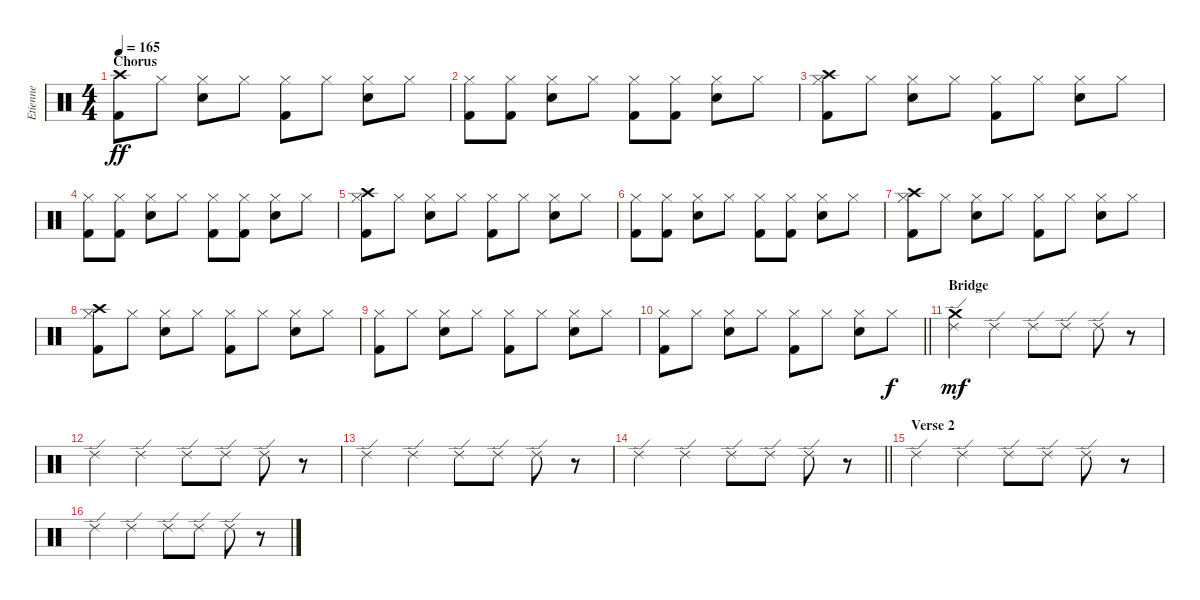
\track ("Etienne" "Etienne") {instrument percussion}
\staff {score}
\articulation defaults
\ts (4 4)
\section ("" "Chorus")
\tempo 165
\clef neutral
\ks c
("Crash high (hit)" "Kick (hit) 2").8{dy ff} "Hi-Hat (closed)".8 ("Hi-Hat (closed)" "Electric Snare (hit)").8 "Hi-Hat (closed)".8 ("Hi-Hat (closed)" "Kick (hit) 2").8 "Hi-Hat (closed)".8 ("Hi-Hat (closed)" "Electric Snare (hit)").8 "Hi-Hat (closed)".8 |
("Hi-Hat (closed)" "Kick (hit) 2").8 ("Hi-Hat (closed)" "Kick (hit) 2").8 ("Hi-Hat (closed)" "Electric Snare (hit)").8 "Hi-Hat (closed)".8 ("Hi-Hat (closed)" "Kick (hit) 2").8 ("Hi-Hat (closed)" "Kick (hit) 2").8 ("Hi-Hat (closed)" "Electric Snare (hit)").8 "Hi-Hat (closed)".8 |
("Crash high (hit)" "Hi-Hat (closed)" "Kick (hit) 2").8 "Hi-Hat (closed)".8 ("Hi-Hat (closed)" "Electric Snare (hit)").8 "Hi-Hat (closed)".8 ("Hi-Hat (closed)" "Kick (hit) 2").8 "Hi-Hat (closed)".8 ("Hi-Hat (closed)" "Electric Snare (hit)").8 "Hi-Hat (closed)".8 |
("Hi-Hat (closed)" "Kick (hit) 2").8 ("Hi-Hat (closed)" "Kick (hit) 2").8 ("Hi-Hat (closed)" "Electric Snare (hit)").8 "Hi-Hat (closed)".8 ("Hi-Hat (closed)" "Kick (hit) 2").8 ("Hi-Hat (closed)" "Kick (hit) 2").8 ("Hi-Hat (closed)" "Electric Snare (hit)").8 "Hi-Hat (closed)".8 |
("Crash high (hit)" "Hi-Hat (closed)" "Kick (hit) 2").8 "Hi-Hat (closed)".8 ("Hi-Hat (closed)" "Electric Snare (hit)").8 "Hi-Hat (closed)".8 ("Hi-Hat (closed)" "Kick (hit) 2").8 "Hi-Hat (closed)".8 ("Hi-Hat (closed)" "Electric Snare (hit)").8 "Hi-Hat (closed)".8 |
("Hi-Hat (closed)" "Kick (hit) 2").8 ("Hi-Hat (closed)" "Kick (hit) 2").8 ("Hi-Hat (closed)" "Electric Snare (hit)").8 "Hi-Hat (closed)".8 ("Hi-Hat (closed)" "Kick (hit) 2").8 ("Hi-Hat (closed)" "Kick (hit) 2").8 ("Hi-Hat (closed)" "Electric Snare (hit)").8 "Hi-Hat (closed)".8 |
("Crash high (hit)" "Hi-Hat (closed)" "Kick (hit) 2").8 "Hi-Hat (closed)".8 ("Hi-Hat (closed)" "Electric Snare (hit)").8 "Hi-Hat (closed)".8 ("Hi-Hat (closed)" "Kick (hit) 2").8 "Hi-Hat (closed)".8 ("Hi-Hat (closed)" "Electric Snare (hit)").8 "Hi-Hat (closed)".8 |
("Crash high (hit)" "Hi-Hat (closed)" "Kick (hit) 2").8 "Hi-Hat (closed)".8 ("Hi-Hat (closed)" "Electric Snare (hit)").8 "Hi-Hat (closed)".8 ("Hi-Hat (closed)" "Kick (hit) 2").8 "Hi-Hat (closed)".8 ("Hi-Hat (closed)" "Electric Snare (hit)").8 "Hi-Hat (closed)".8 |
("Hi-Hat (closed)" "Kick (hit) 2").8 "Hi-Hat (closed)".8 ("Hi-Hat (closed)" "Electric Snare (hit)").8 "Hi-Hat (closed)".8 ("Hi-Hat (closed)" "Kick (hit) 2").8 "Hi-Hat (closed)".8 ("Hi-Hat (closed)" "Electric Snare (hit)").8 "Hi-Hat (closed)".8 |
\barLineRight lightlight
("Hi-Hat (closed)" "Kick (hit) 2").8 "Hi-Hat (closed)".8 ("Hi-Hat (closed)" "Electric Snare (hit)").8 "Hi-Hat (closed)".8 ("Hi-Hat (closed)" "Kick (hit) 2").8 "Hi-Hat (closed)".8 ("Hi-Hat (closed)" "Electric Snare (hit)").8 "Hi-Hat (closed)".8{dy f} |
\section ("" "Bridge")
("Crash medium (hit)" "Ride (edge) 2").4{dy mf} "Ride (edge) 2".4 "Ride (edge) 2".8 "Ride (edge) 2".8 "Ride (edge) 2".8 r.8 |
"Ride (edge) 2".4 "Ride (edge) 2".4 "Ride (edge) 2".8 "Ride (edge) 2".8 "Ride (edge) 2".8 r.8 |
"Ride (edge) 2".4 "Ride (edge) 2".4 "Ride (edge) 2".8 "Ride (edge) 2".8 "Ride (edge) 2".8 r.8 |
\barLineRight lightlight "Ride (edge) 2".4 "Ride (edge) 2".4 "Ride (edge) 2".8 "Ride (edge) 2".8 "Ride (edge) 2".8
r.8 |
\section ("" "Verse 2")
"Ride (edge) 2".4 "Ride (edge) 2".4 "Ride (edge) 2".8 "Ride (edge) 2".8 "Ride (edge) 2".8 r.8 |
"Ride (edge) 2".4 "Ride (edge) 2".4 "Ride (edge) 2".8 "Ride (edge) 2".8 "Ride (edge) 2".8 r.8
